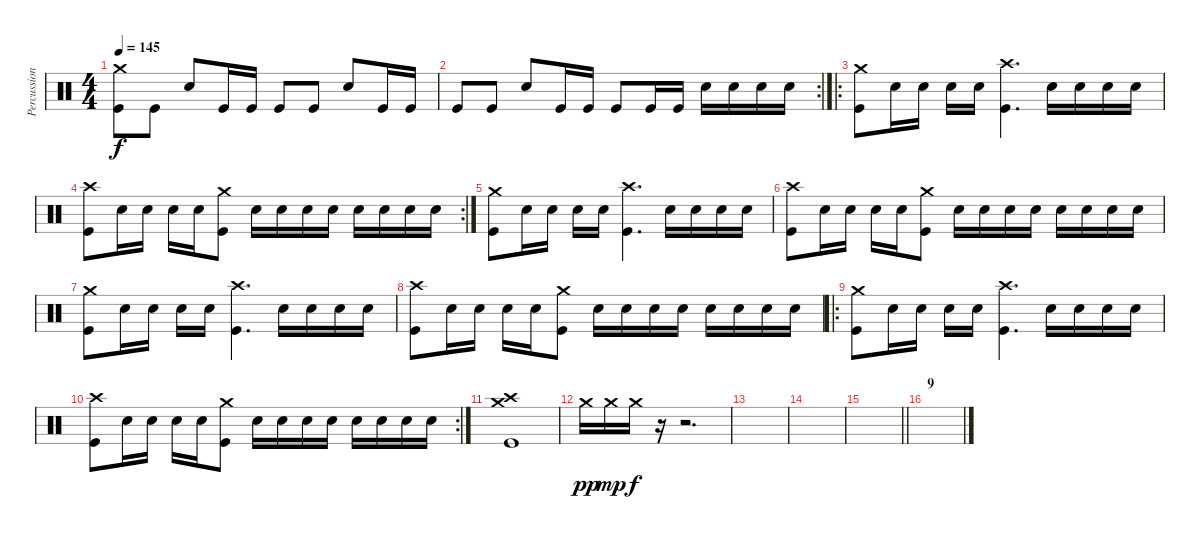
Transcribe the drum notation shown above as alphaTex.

\track ("Percussion" "Percussion") {instrument percussion}
\staff {score}
\articulation defaults
\ts (4 4)
\tempo 145
\clef neutral
\ks c
("Crash medium (hit)" "Kick (hit)").8{dy f} "Kick (hit)".8 "Snare (hit) 2".8 "Kick (hit)".16 "Kick (hit)".16 "Kick (hit)".8 "Kick (hit)".8 "Snare (hit) 2".8 "Kick (hit)".16 "Kick (hit)".16 |
\rc 2 "Kick (hit)".8 "Kick (hit)".8 "Snare (hit) 2".8 "Kick (hit)".16 "Kick (hit)".16 "Kick (hit)".8 "Kick (hit)".16 "Kick (hit)".16 "Snare (hit) 2".16 "Snare (hit) 2".16 "Snare (hit) 2".16 "Snare (hit) 2".16
|
\ro
("Crash medium (hit)" "Kick (hit)").8 "Snare (hit) 2".16 "Snare (hit) 2".16 "Snare (hit) 2".16 "Snare (hit) 2".16 ("Crash high (hit)" "Kick (hit)").4{d} "Snare (hit) 2".16 "Snare (hit) 2".16 "Snare (hit) 2".16 "Snare (hit) 2".16 |
\rc 2
("Crash high (hit)" "Kick (hit)").8 "Snare (hit) 2".16 "Snare (hit) 2".16 "Snare (hit) 2".16 "Snare (hit) 2".16 ("Crash medium (hit)" "Kick (hit)").8 "Snare (hit) 2".16 "Snare (hit) 2".16 "Snare (hit) 2".16 "Snare (hit) 2".16 "Snare (hit) 2".16 "Snare (hit) 2".16 "Snare (hit) 2".16 "Snare (hit) 2".16 |
("Crash medium (hit)" "Kick (hit)").8 "Snare (hit) 2".16 "Snare (hit) 2".16 "Snare (hit) 2".16 "Snare (hit) 2".16 ("Crash high (hit)" "Kick (hit)").4{d} "Snare (hit) 2".16 "Snare (hit) 2".16 "Snare (hit) 2".16 "Snare (hit) 2".16 |
("Crash high (hit)" "Kick (hit)").8 "Snare (hit) 2".16 "Snare (hit) 2".16 "Snare (hit) 2".16 "Snare (hit) 2".16 ("Crash medium (hit)" "Kick (hit)").8 "Snare (hit) 2".16 "Snare (hit) 2".16 "Snare (hit) 2".16 "Snare (hit) 2".16 "Snare (hit) 2".16 "Snare (hit) 2".16 "Snare (hit) 2".16 "Snare (hit) 2".16 |
("Crash medium (hit)" "Kick (hit)").8 "Snare (hit) 2".16 "Snare (hit) 2".16 "Snare (hit) 2".16 "Snare (hit) 2".16 ("Crash high (hit)" "Kick (hit)").4{d} "Snare (hit) 2".16 "Snare (hit) 2".16 "Snare (hit) 2".16 "Snare (hit) 2".16 |
("Crash high (hit)" "Kick (hit)").8 "Snare (hit) 2".16 "Snare (hit) 2".16 "Snare (hit) 2".16 "Snare (hit) 2".16 ("Crash medium (hit)" "Kick (hit)").8 "Snare (hit) 2".16 "Snare (hit) 2".16 "Snare (hit) 2".16 "Snare (hit) 2".16 "Snare (hit) 2".16 "Snare (hit) 2".16 "Snare (hit) 2".16 "Snare (hit) 2".16 |
\ro
("Crash medium (hit)" "Kick (hit)").8 "Snare (hit) 2".16 "Snare (hit) 2".16 "Snare (hit) 2".16 "Snare (hit) 2".16 ("Crash high (hit)" "Kick (hit)").4{d} "Snare (hit) 2".16 "Snare (hit) 2".16 "Snare (hit) 2".16 "Snare (hit) 2".16 |
\rc 2
("Crash high (hit)" "Kick (hit)").8 "Snare (hit) 2".16 "Snare (hit) 2".16 "Snare (hit) 2".16 "Snare (hit) 2".16 ("Crash medium (hit)" "Kick (hit)").8 "Snare (hit) 2".16 "Snare (hit) 2".16 "Snare (hit) 2".16 "Snare (hit) 2".16 "Snare (hit) 2".16 "Snare (hit) 2".16 "Snare (hit) 2".16 "Snare (hit) 2".16 |
("Crash high (hit)" "Crash medium (hit)" "Kick (hit)").1 |
"Crash medium (hit)".16{dy pp} "Crash medium (hit)".16{dy mp} "Crash medium (hit)".16{dy f} r.16 r.2{d} |
|
|
\barLineRight lightlight
|
\section ("" "9")
